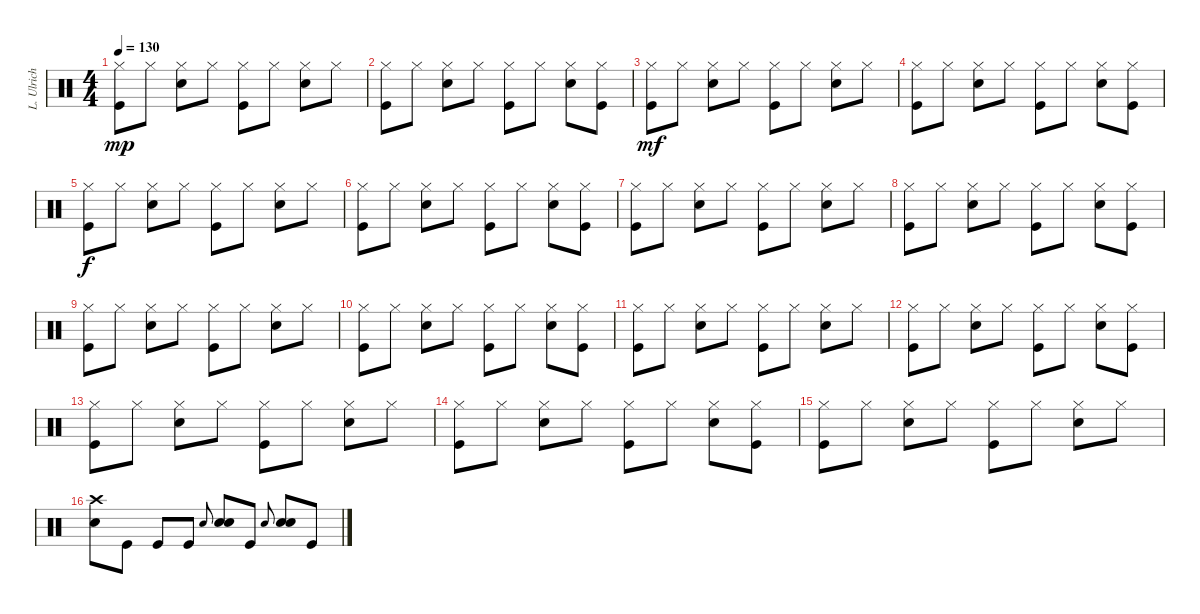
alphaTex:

\track ("L. Ulrich" "L. Ulrich") {instrument percussion}
\staff {score}
\articulation defaults
\ts (4 4)
\tempo 130
\clef neutral
\ks c
("Hi-Hat (closed)" "Kick (hit)").8{dy mp} "Hi-Hat (closed)".8 ("Hi-Hat (closed)" "Snare (hit) 2").8 "Hi-Hat (closed)".8 ("Hi-Hat (closed)" "Kick (hit)").8 "Hi-Hat (closed)".8 ("Hi-Hat (closed)" "Snare (hit) 2").8 "Hi-Hat (closed)".8 |
("Hi-Hat (closed)" "Kick (hit)").8 "Hi-Hat (closed)".8 ("Hi-Hat (closed)" "Snare (hit) 2").8 "Hi-Hat (closed)".8 ("Hi-Hat (closed)" "Kick (hit)").8 "Hi-Hat (closed)".8 ("Hi-Hat (closed)" "Snare (hit) 2").8 ("Hi-Hat (closed)" "Kick (hit)").8 |
("Hi-Hat (closed)" "Kick (hit)").8{dy mf} "Hi-Hat (closed)".8 ("Hi-Hat (closed)" "Snare (hit) 2").8 "Hi-Hat (closed)".8 ("Hi-Hat (closed)" "Kick (hit)").8 "Hi-Hat (closed)".8 ("Hi-Hat (closed)" "Snare (hit) 2").8 "Hi-Hat (closed)".8 |
("Hi-Hat (closed)" "Kick (hit)").8 "Hi-Hat (closed)".8 ("Hi-Hat (closed)" "Snare (hit) 2").8 "Hi-Hat (closed)".8 ("Hi-Hat (closed)" "Kick (hit)").8 "Hi-Hat (closed)".8 ("Hi-Hat (closed)" "Snare (hit) 2").8 ("Hi-Hat (closed)" "Kick (hit)").8 |
("Hi-Hat (closed)" "Kick (hit)").8{dy f} "Hi-Hat (closed)".8 ("Hi-Hat (closed)" "Snare (hit) 2").8 "Hi-Hat (closed)".8 ("Hi-Hat (closed)" "Kick (hit)").8 "Hi-Hat (closed)".8 ("Hi-Hat (closed)" "Snare (hit) 2").8 "Hi-Hat (closed)".8 |
("Hi-Hat (closed)" "Kick (hit)").8 "Hi-Hat (closed)".8 ("Hi-Hat (closed)" "Snare (hit) 2").8 "Hi-Hat (closed)".8 ("Hi-Hat (closed)" "Kick (hit)").8 "Hi-Hat (closed)".8 ("Hi-Hat (closed)" "Snare (hit) 2").8 ("Hi-Hat (closed)" "Kick (hit)").8 |
("Hi-Hat (closed)" "Kick (hit)").8 "Hi-Hat (closed)".8 ("Hi-Hat (closed)" "Snare (hit) 2").8 "Hi-Hat (closed)".8 ("Hi-Hat (closed)" "Kick (hit)").8 "Hi-Hat (closed)".8 ("Hi-Hat (closed)" "Snare (hit) 2").8 "Hi-Hat (closed)".8 |
("Hi-Hat (closed)" "Kick (hit)").8 "Hi-Hat (closed)".8 ("Hi-Hat (closed)" "Snare (hit) 2").8 "Hi-Hat (closed)".8 ("Hi-Hat (closed)" "Kick (hit)").8 "Hi-Hat (closed)".8 ("Hi-Hat (closed)" "Snare (hit) 2").8 ("Hi-Hat (closed)" "Kick (hit)").8 |
("Hi-Hat (closed)" "Kick (hit)").8 "Hi-Hat (closed)".8 ("Hi-Hat (closed)" "Snare (hit) 2").8 "Hi-Hat (closed)".8 ("Hi-Hat (closed)" "Kick (hit)").8 "Hi-Hat (closed)".8 ("Hi-Hat (closed)" "Snare (hit) 2").8 "Hi-Hat (closed)".8 |
("Hi-Hat (closed)" "Kick (hit)").8 "Hi-Hat (closed)".8 ("Hi-Hat (closed)" "Snare (hit) 2").8 "Hi-Hat (closed)".8 ("Hi-Hat (closed)" "Kick (hit)").8 "Hi-Hat (closed)".8 ("Hi-Hat (closed)" "Snare (hit) 2").8 ("Hi-Hat (closed)" "Kick (hit)").8 |
("Hi-Hat (closed)" "Kick (hit)").8 "Hi-Hat (closed)".8 ("Hi-Hat (closed)" "Snare (hit) 2").8 "Hi-Hat (closed)".8 ("Hi-Hat (closed)" "Kick (hit)").8 "Hi-Hat (closed)".8 ("Hi-Hat (closed)" "Snare (hit) 2").8 "Hi-Hat (closed)".8 |
("Hi-Hat (closed)" "Kick (hit)").8 "Hi-Hat (closed)".8 ("Hi-Hat (closed)" "Snare (hit) 2").8 "Hi-Hat (closed)".8 ("Hi-Hat (closed)" "Kick (hit)").8 "Hi-Hat (closed)".8 ("Hi-Hat (closed)" "Snare (hit) 2").8 ("Hi-Hat (closed)" "Kick (hit)").8 |
("Hi-Hat (closed)" "Kick (hit)").8 "Hi-Hat (closed)".8 ("Hi-Hat (closed)" "Snare (hit) 2").8 "Hi-Hat (closed)".8 ("Hi-Hat (closed)" "Kick (hit)").8 "Hi-Hat (closed)".8 ("Hi-Hat (closed)" "Snare (hit) 2").8 "Hi-Hat (closed)".8 |
("Hi-Hat (closed)" "Kick (hit)").8 "Hi-Hat (closed)".8 ("Hi-Hat (closed)" "Snare (hit) 2").8 "Hi-Hat (closed)".8 ("Hi-Hat (closed)" "Kick (hit)").8 "Hi-Hat (closed)".8 ("Hi-Hat (closed)" "Snare (hit) 2").8 ("Hi-Hat (closed)" "Kick (hit)").8 |
("Hi-Hat (closed)" "Kick (hit)").8 "Hi-Hat (closed)".8 ("Hi-Hat (closed)" "Snare (hit) 2").8 "Hi-Hat (closed)".8 ("Hi-Hat (closed)" "Kick (hit)").8 "Hi-Hat (closed)".8 ("Hi-Hat (closed)" "Snare (hit) 2").8 "Hi-Hat (closed)".8 |
("Crash high (hit)" "Snare (hit) 2").8 "Kick (hit)".8 "Kick (hit)".8 "Kick (hit)".8 "Snare (hit) 2".8{gr onbeat} ("Snare (hit) 2" "Snare (hit) 2").8 "Kick (hit)".8 "Snare (hit) 2".8{gr onbeat} ("Snare (hit) 2" "Snare (hit) 2").8 "Kick (hit)".8
